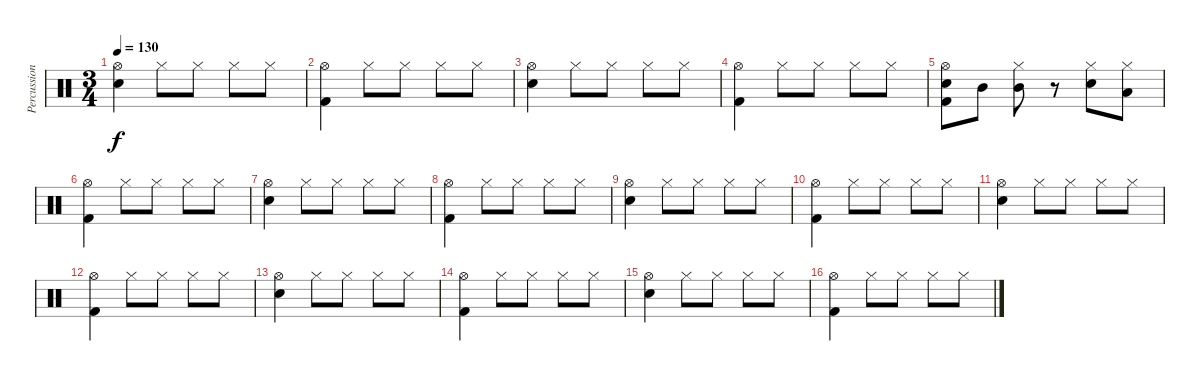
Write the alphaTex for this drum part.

\track ("Percussion" "Percussion") {instrument percussion}
\staff {score}
\articulation defaults
\ts (3 4)
\tempo 130
\clef neutral
\ks c
("Hi-Hat (open)" "Snare (hit) 2").4{dy f} "Hi-Hat (closed)".8 "Hi-Hat (closed)".8 "Hi-Hat (closed)".8 "Hi-Hat (closed)".8 |
("Hi-Hat (open)" "Kick (hit) 2").4 "Hi-Hat (closed)".8 "Hi-Hat (closed)".8 "Hi-Hat (closed)".8 "Hi-Hat (closed)".8 |
("Hi-Hat (open)" "Snare (hit) 2").4 "Hi-Hat (closed)".8 "Hi-Hat (closed)".8 "Hi-Hat (closed)".8 "Hi-Hat (closed)".8 |
("Hi-Hat (open)" "Kick (hit) 2").4 "Hi-Hat (closed)".8 "Hi-Hat (closed)".8 "Hi-Hat (closed)".8 "Hi-Hat (closed)".8 |
("Snare (hit) 2" "Hi-Hat (open)" "Kick (hit) 2").8 "Mid Tom (hit)".8 ("Mid Tom (hit)" "Hi-Hat (closed)").8 r.8 ("Snare (hit) 2" "Hi-Hat (closed)").8 ("Low Tom (hit)" "Hi-Hat (closed)").8 |
("Hi-Hat (open)" "Kick (hit) 2").4 "Hi-Hat (closed)".8 "Hi-Hat (closed)".8 "Hi-Hat (closed)".8 "Hi-Hat (closed)".8 |
("Hi-Hat (open)" "Snare (hit) 2").4 "Hi-Hat (closed)".8 "Hi-Hat (closed)".8 "Hi-Hat (closed)".8 "Hi-Hat (closed)".8 |
("Hi-Hat (open)" "Kick (hit) 2").4 "Hi-Hat (closed)".8 "Hi-Hat (closed)".8 "Hi-Hat (closed)".8 "Hi-Hat (closed)".8 |
("Hi-Hat (open)" "Snare (hit) 2").4 "Hi-Hat (closed)".8 "Hi-Hat (closed)".8 "Hi-Hat (closed)".8 "Hi-Hat (closed)".8 |
("Hi-Hat (open)" "Kick (hit) 2").4 "Hi-Hat (closed)".8 "Hi-Hat (closed)".8 "Hi-Hat (closed)".8 "Hi-Hat (closed)".8 |
("Hi-Hat (open)" "Snare (hit) 2").4 "Hi-Hat (closed)".8 "Hi-Hat (closed)".8 "Hi-Hat (closed)".8 "Hi-Hat (closed)".8 |
("Hi-Hat (open)" "Kick (hit) 2").4 "Hi-Hat (closed)".8 "Hi-Hat (closed)".8 "Hi-Hat (closed)".8 "Hi-Hat (closed)".8 |
("Hi-Hat (open)" "Snare (hit) 2").4 "Hi-Hat (closed)".8 "Hi-Hat (closed)".8 "Hi-Hat (closed)".8 "Hi-Hat (closed)".8 |
("Hi-Hat (open)" "Kick (hit) 2").4 "Hi-Hat (closed)".8 "Hi-Hat (closed)".8 "Hi-Hat (closed)".8 "Hi-Hat (closed)".8 |
("Hi-Hat (open)" "Snare (hit) 2").4 "Hi-Hat (closed)".8 "Hi-Hat (closed)".8 "Hi-Hat (closed)".8 "Hi-Hat (closed)".8 |
("Hi-Hat (open)" "Kick (hit) 2").4 "Hi-Hat (closed)".8 "Hi-Hat (closed)".8 "Hi-Hat (closed)".8 "Hi-Hat (closed)".8
